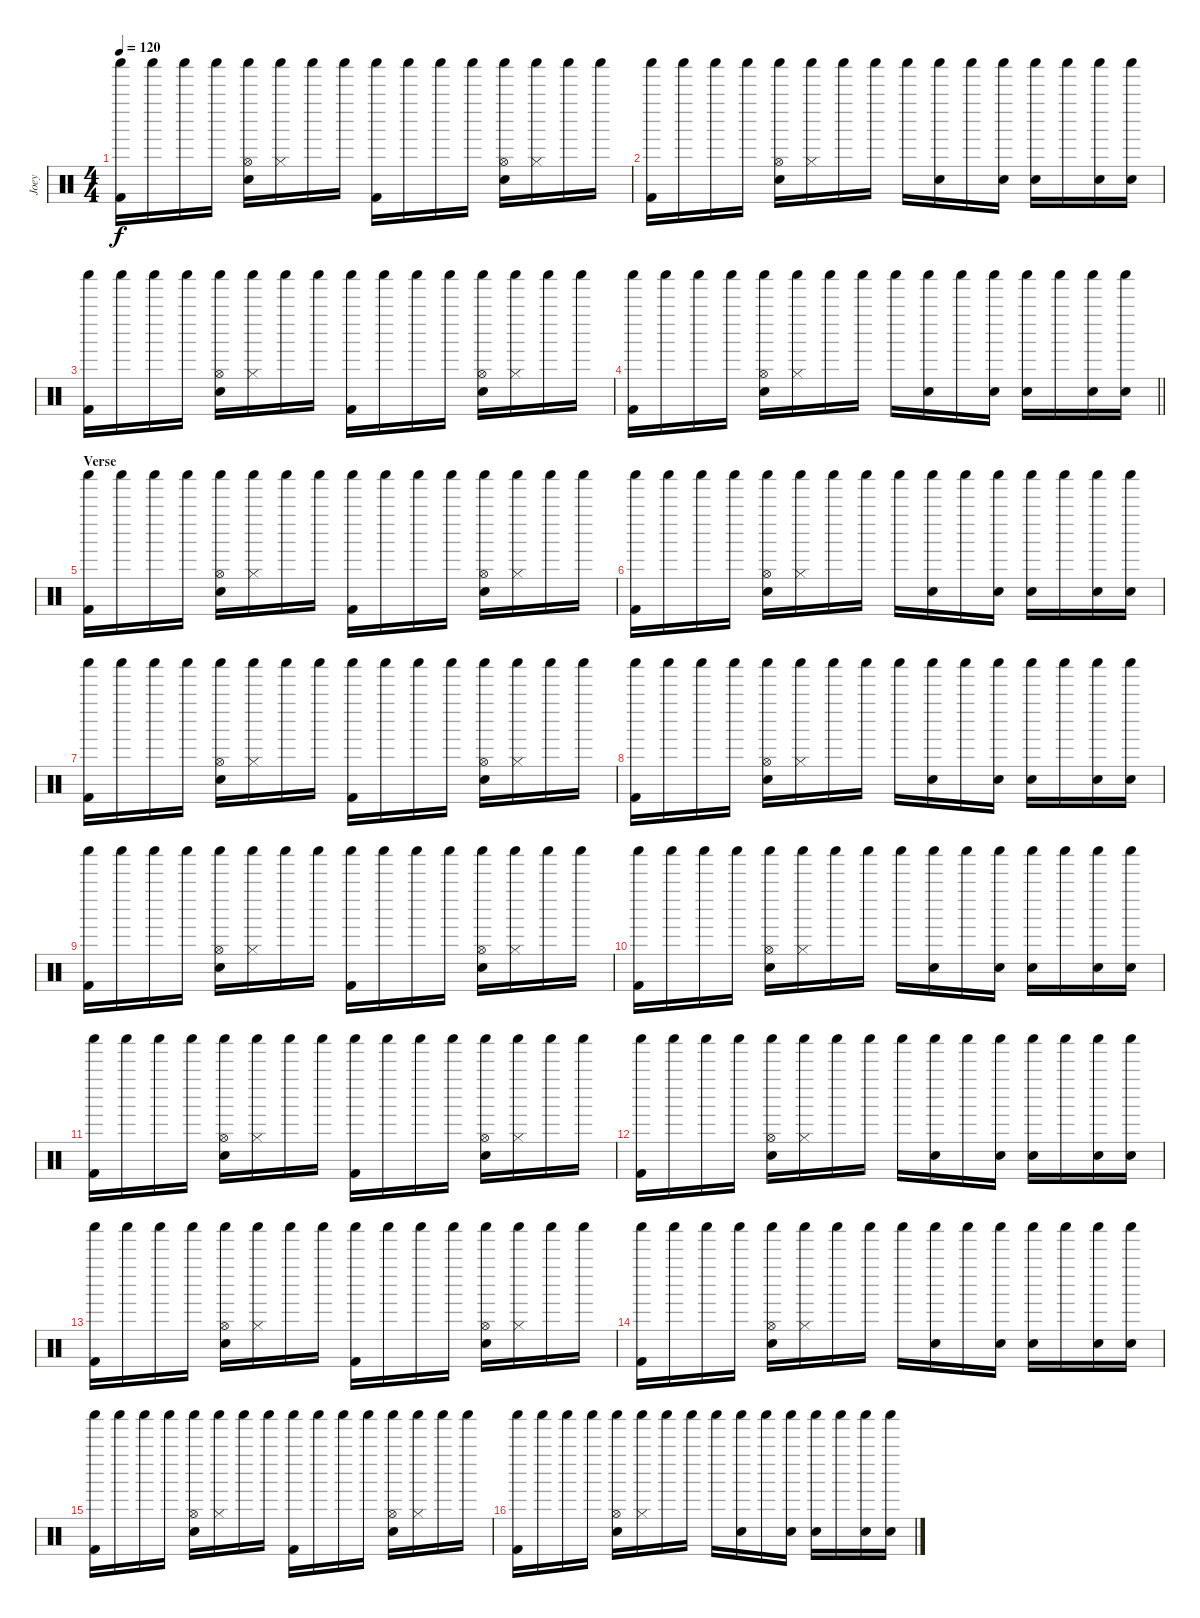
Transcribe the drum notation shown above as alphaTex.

\track ("Joey" "Joey") {instrument percussion}
\staff {score}
\articulation defaults
\ts (4 4)
\tempo 120
\clef neutral
\ks c
("Shaker (hit)" "Kick (hit) 2").16{dy f} "Shaker (hit)".16 "Shaker (hit)".16 "Shaker (hit)".16 ("Shaker (hit)" "Hi-Hat (open)" "Electric Snare (hit)").16 ("Shaker (hit)" "Hi-Hat (closed)").16 "Shaker (hit)".16 "Shaker (hit)".16 ("Shaker (hit)" "Kick (hit) 2").16 "Shaker (hit)".16 "Shaker (hit)".16 "Shaker (hit)".16 ("Shaker (hit)" "Hi-Hat (open)" "Electric Snare (hit)").16 ("Shaker (hit)" "Hi-Hat (closed)").16 "Shaker (hit)".16 "Shaker (hit)".16 |
("Shaker (hit)" "Kick (hit) 2").16 "Shaker (hit)".16 "Shaker (hit)".16 "Shaker (hit)".16 ("Shaker (hit)" "Hi-Hat (open)" "Electric Snare (hit)").16 ("Shaker (hit)" "Hi-Hat (closed)").16 "Shaker (hit)".16 "Shaker (hit)".16 "Shaker (hit)".16 ("Shaker (hit)" "Electric Snare (hit)").16 "Shaker (hit)".16 ("Shaker (hit)" "Electric Snare (hit)").16 ("Shaker (hit)" "Electric Snare (hit)").16 "Shaker (hit)".16 ("Shaker (hit)" "Electric Snare (hit)").16 ("Shaker (hit)" "Electric Snare (hit)").16 |
("Shaker (hit)" "Kick (hit) 2").16 "Shaker (hit)".16 "Shaker (hit)".16 "Shaker (hit)".16 ("Shaker (hit)" "Hi-Hat (open)" "Electric Snare (hit)").16 ("Shaker (hit)" "Hi-Hat (closed)").16 "Shaker (hit)".16 "Shaker (hit)".16 ("Shaker (hit)" "Kick (hit) 2").16 "Shaker (hit)".16 "Shaker (hit)".16 "Shaker (hit)".16 ("Shaker (hit)" "Hi-Hat (open)" "Electric Snare (hit)").16 ("Shaker (hit)" "Hi-Hat (closed)").16 "Shaker (hit)".16 "Shaker (hit)".16 |
\barLineRight lightlight
("Shaker (hit)" "Kick (hit) 2").16 "Shaker (hit)".16 "Shaker (hit)".16 "Shaker (hit)".16 ("Shaker (hit)" "Hi-Hat (open)" "Electric Snare (hit)").16 ("Shaker (hit)" "Hi-Hat (closed)").16 "Shaker (hit)".16 "Shaker (hit)".16 "Shaker (hit)".16 ("Shaker (hit)" "Electric Snare (hit)").16 "Shaker (hit)".16 ("Shaker (hit)" "Electric Snare (hit)").16 ("Shaker (hit)" "Electric Snare (hit)").16 "Shaker (hit)".16 ("Shaker (hit)" "Electric Snare (hit)").16 ("Shaker (hit)" "Electric Snare (hit)").16 |
\section ("" "Verse")
("Shaker (hit)" "Kick (hit) 2").16 "Shaker (hit)".16 "Shaker (hit)".16 "Shaker (hit)".16 ("Shaker (hit)" "Hi-Hat (open)" "Electric Snare (hit)").16 ("Shaker (hit)" "Hi-Hat (closed)").16 "Shaker (hit)".16 "Shaker (hit)".16 ("Shaker (hit)" "Kick (hit) 2").16 "Shaker (hit)".16 "Shaker (hit)".16 "Shaker (hit)".16 ("Shaker (hit)" "Hi-Hat (open)" "Electric Snare (hit)").16 ("Shaker (hit)" "Hi-Hat (closed)").16 "Shaker (hit)".16 "Shaker (hit)".16 |
("Shaker (hit)" "Kick (hit) 2").16 "Shaker (hit)".16 "Shaker (hit)".16 "Shaker (hit)".16 ("Shaker (hit)" "Hi-Hat (open)" "Electric Snare (hit)").16 ("Shaker (hit)" "Hi-Hat (closed)").16 "Shaker (hit)".16 "Shaker (hit)".16 "Shaker (hit)".16 ("Shaker (hit)" "Electric Snare (hit)").16 "Shaker (hit)".16 ("Shaker (hit)" "Electric Snare (hit)").16 ("Shaker (hit)" "Electric Snare (hit)").16 "Shaker (hit)".16 ("Shaker (hit)" "Electric Snare (hit)").16 ("Shaker (hit)" "Electric Snare (hit)").16 |
("Shaker (hit)" "Kick (hit) 2").16 "Shaker (hit)".16 "Shaker (hit)".16 "Shaker (hit)".16 ("Shaker (hit)" "Hi-Hat (open)" "Electric Snare (hit)").16 ("Shaker (hit)" "Hi-Hat (closed)").16 "Shaker (hit)".16 "Shaker (hit)".16 ("Shaker (hit)" "Kick (hit) 2").16 "Shaker (hit)".16 "Shaker (hit)".16 "Shaker (hit)".16 ("Shaker (hit)" "Hi-Hat (open)" "Electric Snare (hit)").16 ("Shaker (hit)" "Hi-Hat (closed)").16 "Shaker (hit)".16 "Shaker (hit)".16 |
("Shaker (hit)" "Kick (hit) 2").16 "Shaker (hit)".16 "Shaker (hit)".16 "Shaker (hit)".16 ("Shaker (hit)" "Hi-Hat (open)" "Electric Snare (hit)").16 ("Shaker (hit)" "Hi-Hat (closed)").16 "Shaker (hit)".16 "Shaker (hit)".16 "Shaker (hit)".16 ("Shaker (hit)" "Electric Snare (hit)").16 "Shaker (hit)".16 ("Shaker (hit)" "Electric Snare (hit)").16 ("Shaker (hit)" "Electric Snare (hit)").16 "Shaker (hit)".16 ("Shaker (hit)" "Electric Snare (hit)").16 ("Shaker (hit)" "Electric Snare (hit)").16 |
("Shaker (hit)" "Kick (hit) 2").16 "Shaker (hit)".16 "Shaker (hit)".16 "Shaker (hit)".16 ("Shaker (hit)" "Hi-Hat (open)" "Electric Snare (hit)").16 ("Shaker (hit)" "Hi-Hat (closed)").16 "Shaker (hit)".16 "Shaker (hit)".16 ("Shaker (hit)" "Kick (hit) 2").16 "Shaker (hit)".16 "Shaker (hit)".16 "Shaker (hit)".16 ("Shaker (hit)" "Hi-Hat (open)" "Electric Snare (hit)").16 ("Shaker (hit)" "Hi-Hat (closed)").16 "Shaker (hit)".16 "Shaker (hit)".16 |
("Shaker (hit)" "Kick (hit) 2").16 "Shaker (hit)".16 "Shaker (hit)".16 "Shaker (hit)".16 ("Shaker (hit)" "Hi-Hat (open)" "Electric Snare (hit)").16 ("Shaker (hit)" "Hi-Hat (closed)").16 "Shaker (hit)".16 "Shaker (hit)".16 "Shaker (hit)".16 ("Shaker (hit)" "Electric Snare (hit)").16 "Shaker (hit)".16 ("Shaker (hit)" "Electric Snare (hit)").16 ("Shaker (hit)" "Electric Snare (hit)").16 "Shaker (hit)".16 ("Shaker (hit)" "Electric Snare (hit)").16 ("Shaker (hit)" "Electric Snare (hit)").16 |
("Shaker (hit)" "Kick (hit) 2").16 "Shaker (hit)".16 "Shaker (hit)".16 "Shaker (hit)".16 ("Shaker (hit)" "Hi-Hat (open)" "Electric Snare (hit)").16 ("Shaker (hit)" "Hi-Hat (closed)").16 "Shaker (hit)".16 "Shaker (hit)".16 ("Shaker (hit)" "Kick (hit) 2").16 "Shaker (hit)".16 "Shaker (hit)".16 "Shaker (hit)".16 ("Shaker (hit)" "Hi-Hat (open)" "Electric Snare (hit)").16 ("Shaker (hit)" "Hi-Hat (closed)").16 "Shaker (hit)".16 "Shaker (hit)".16 |
("Shaker (hit)" "Kick (hit) 2").16 "Shaker (hit)".16 "Shaker (hit)".16 "Shaker (hit)".16 ("Shaker (hit)" "Hi-Hat (open)" "Electric Snare (hit)").16 ("Shaker (hit)" "Hi-Hat (closed)").16 "Shaker (hit)".16 "Shaker (hit)".16 "Shaker (hit)".16 ("Shaker (hit)" "Electric Snare (hit)").16 "Shaker (hit)".16 ("Shaker (hit)" "Electric Snare (hit)").16 ("Shaker (hit)" "Electric Snare (hit)").16 "Shaker (hit)".16 ("Shaker (hit)" "Electric Snare (hit)").16 ("Shaker (hit)" "Electric Snare (hit)").16 |
("Shaker (hit)" "Kick (hit) 2").16 "Shaker (hit)".16 "Shaker (hit)".16 "Shaker (hit)".16 ("Shaker (hit)" "Hi-Hat (open)" "Electric Snare (hit)").16 ("Shaker (hit)" "Hi-Hat (closed)").16 "Shaker (hit)".16 "Shaker (hit)".16 ("Shaker (hit)" "Kick (hit) 2").16 "Shaker (hit)".16 "Shaker (hit)".16 "Shaker (hit)".16 ("Shaker (hit)" "Hi-Hat (open)" "Electric Snare (hit)").16 ("Shaker (hit)" "Hi-Hat (closed)").16 "Shaker (hit)".16 "Shaker (hit)".16 |
("Shaker (hit)" "Kick (hit) 2").16 "Shaker (hit)".16 "Shaker (hit)".16 "Shaker (hit)".16 ("Shaker (hit)" "Hi-Hat (open)" "Electric Snare (hit)").16 ("Shaker (hit)" "Hi-Hat (closed)").16 "Shaker (hit)".16 "Shaker (hit)".16 "Shaker (hit)".16 ("Shaker (hit)" "Electric Snare (hit)").16 "Shaker (hit)".16 ("Shaker (hit)" "Electric Snare (hit)").16 ("Shaker (hit)" "Electric Snare (hit)").16 "Shaker (hit)".16 ("Shaker (hit)" "Electric Snare (hit)").16 ("Shaker (hit)" "Electric Snare (hit)").16 |
("Shaker (hit)" "Kick (hit) 2").16 "Shaker (hit)".16 "Shaker (hit)".16 "Shaker (hit)".16 ("Shaker (hit)" "Hi-Hat (open)" "Electric Snare (hit)").16 ("Shaker (hit)" "Hi-Hat (closed)").16 "Shaker (hit)".16 "Shaker (hit)".16 ("Shaker (hit)" "Kick (hit) 2").16 "Shaker (hit)".16 "Shaker (hit)".16 "Shaker (hit)".16 ("Shaker (hit)" "Hi-Hat (open)" "Electric Snare (hit)").16 ("Shaker (hit)" "Hi-Hat (closed)").16 "Shaker (hit)".16 "Shaker (hit)".16 |
("Shaker (hit)" "Kick (hit) 2").16 "Shaker (hit)".16 "Shaker (hit)".16 "Shaker (hit)".16 ("Shaker (hit)" "Hi-Hat (open)" "Electric Snare (hit)").16 ("Shaker (hit)" "Hi-Hat (closed)").16 "Shaker (hit)".16 "Shaker (hit)".16 "Shaker (hit)".16 ("Shaker (hit)" "Electric Snare (hit)").16 "Shaker (hit)".16 ("Shaker (hit)" "Electric Snare (hit)").16 ("Shaker (hit)" "Electric Snare (hit)").16 "Shaker (hit)".16 ("Shaker (hit)" "Electric Snare (hit)").16 ("Shaker (hit)" "Electric Snare (hit)").16
